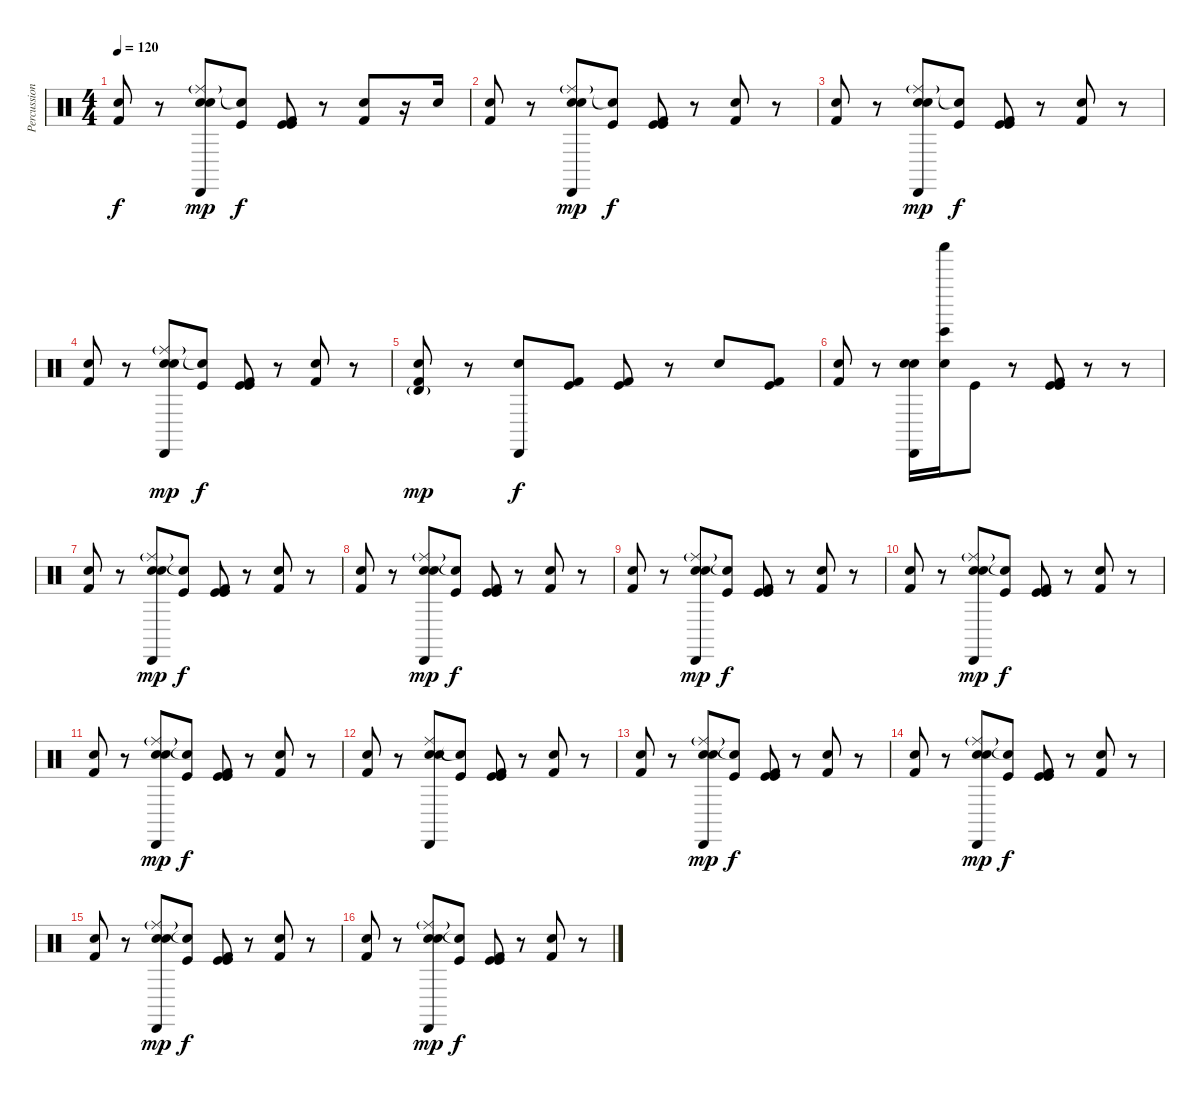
\track ("Percussion" "Percussion") {instrument percussion}
\staff {score}
\articulation defaults
\ts (4 4)
\tempo 120
\clef neutral
\ks c
("Kick (hit) 2" "Snare (hit) 2").8{dy f} r.8 ("Ride (middle)"{g} "Snare (hit) 2" "Cabasa (hit)" "Snare (hit) 2").8{dy mp} ("Snare (hit)"{t} "Kick (hit)").8{dy f} ("Kick (hit)" "Kick (hit)" "Kick (hit) 2").8 r.8 ("Kick (hit) 2" "Snare (hit) 2").8 r.16 "Snare (hit) 2".16 |
("Kick (hit) 2" "Snare (hit) 2").8 r.8 ("Ride (middle)"{g} "Snare (hit) 2" "Cabasa (hit)" "Snare (hit) 2").8{dy mp} ("Snare (hit)"{t} "Kick (hit)").8{dy f} ("Kick (hit)" "Kick (hit)" "Kick (hit) 2").8 r.8 ("Kick (hit) 2" "Snare (hit) 2").8 r.8 |
("Kick (hit) 2" "Snare (hit) 2").8 r.8 ("Ride (middle)"{g} "Snare (hit) 2" "Cabasa (hit)" "Snare (hit) 2").8{dy mp} ("Snare (hit)"{t} "Kick (hit)").8{dy f} ("Kick (hit)" "Kick (hit)" "Kick (hit) 2").8 r.8 ("Kick (hit) 2" "Snare (hit) 2").8 r.8 |
("Kick (hit) 2" "Snare (hit) 2").8 r.8 ("Ride (middle)"{g} "Snare (hit) 2" "Cabasa (hit)" "Snare (hit) 2").8{dy mp} ("Snare (hit)"{t} "Kick (hit)").8{dy f} ("Kick (hit)" "Kick (hit)" "Kick (hit) 2").8 r.8 ("Kick (hit) 2" "Snare (hit) 2").8 r.8 |
("Timbale high (hit)"{g} "Kick (hit) 2" "Snare (hit) 2").8{dy mp} r.8 ("Cabasa (hit)" "Snare (hit) 2").8{dy f} ("Kick (hit)" "Kick (hit) 2").8 ("Kick (hit)" "Kick (hit) 2").8 r.8 "Snare (hit) 2".8 ("Kick (hit) 2" "Kick (hit)").8 |
("Kick (hit) 2" "Snare (hit) 2").8 r.8 ("Snare (hit) 2" "Cabasa (hit)" "Snare (hit) 2").16 ("Bongo High (hit)" "Shaker (hit)" "Snare (hit) 2").16 "Kick (hit)".8 r.8 ("Kick (hit)" "Kick (hit)" "Kick (hit) 2").8 r.8 r.8 |
("Kick (hit) 2" "Snare (hit) 2").8 r.8 ("Ride (middle)"{g} "Snare (hit) 2" "Cabasa (hit)" "Snare (hit) 2").8{dy mp} ("Snare (hit)"{t} "Kick (hit)").8{dy f} ("Kick (hit)" "Kick (hit)" "Kick (hit) 2").8 r.8 ("Kick (hit) 2" "Snare (hit) 2").8 r.8 |
("Kick (hit) 2" "Snare (hit) 2").8 r.8 ("Ride (middle)"{g} "Snare (hit) 2" "Cabasa (hit)" "Snare (hit) 2").8{dy mp} ("Snare (hit)"{t} "Kick (hit)").8{dy f} ("Kick (hit)" "Kick (hit)" "Kick (hit) 2").8 r.8 ("Kick (hit) 2" "Snare (hit) 2").8 r.8 |
("Kick (hit) 2" "Snare (hit) 2").8 r.8 ("Ride (middle)"{g} "Snare (hit) 2" "Cabasa (hit)" "Snare (hit) 2").8{dy mp} ("Snare (hit)"{t} "Kick (hit)").8{dy f} ("Kick (hit)" "Kick (hit)" "Kick (hit) 2").8 r.8 ("Kick (hit) 2" "Snare (hit) 2").8 r.8 |
("Kick (hit) 2" "Snare (hit) 2").8 r.8 ("Ride (middle)"{g} "Snare (hit) 2" "Cabasa (hit)" "Snare (hit) 2").8{dy mp} ("Snare (hit)"{t} "Kick (hit)").8{dy f} ("Kick (hit)" "Kick (hit)" "Kick (hit) 2").8 r.8 ("Kick (hit) 2" "Snare (hit) 2").8 r.8 |
("Kick (hit) 2" "Snare (hit) 2").8 r.8 ("Ride (middle)"{g} "Snare (hit) 2" "Cabasa (hit)" "Snare (hit) 2").8{dy mp} ("Snare (hit)"{t} "Kick (hit)").8{dy f} ("Kick (hit)" "Kick (hit)" "Kick (hit) 2").8 r.8 ("Kick (hit) 2" "Snare (hit) 2").8 r.8 |
("Kick (hit) 2" "Snare (hit) 2").8 r.8 ("Ride (middle)" "Snare (hit) 2" "Cabasa (hit)" "Snare (hit) 2").8 ("Snare (hit)"{t} "Kick (hit)").8 ("Kick (hit)" "Kick (hit)" "Kick (hit) 2").8 r.8 ("Kick (hit) 2" "Snare (hit) 2").8 r.8 |
("Kick (hit) 2" "Snare (hit) 2").8 r.8 ("Ride (middle)"{g} "Snare (hit) 2" "Cabasa (hit)" "Snare (hit) 2").8{dy mp} ("Snare (hit)"{t} "Kick (hit)").8{dy f} ("Kick (hit)" "Kick (hit)" "Kick (hit) 2").8 r.8 ("Kick (hit) 2" "Snare (hit) 2").8 r.8 |
("Kick (hit) 2" "Snare (hit) 2").8 r.8 ("Ride (middle)"{g} "Snare (hit) 2" "Cabasa (hit)" "Snare (hit) 2").8{dy mp} ("Snare (hit)"{t} "Kick (hit)").8{dy f} ("Kick (hit)" "Kick (hit)" "Kick (hit) 2").8 r.8 ("Kick (hit) 2" "Snare (hit) 2").8 r.8 |
("Kick (hit) 2" "Snare (hit) 2").8 r.8 ("Ride (middle)"{g} "Snare (hit) 2" "Cabasa (hit)" "Snare (hit) 2").8{dy mp} ("Snare (hit)"{t} "Kick (hit)").8{dy f} ("Kick (hit)" "Kick (hit)" "Kick (hit) 2").8 r.8 ("Kick (hit) 2" "Snare (hit) 2").8 r.8 |
("Kick (hit) 2" "Snare (hit) 2").8 r.8 ("Ride (middle)"{g} "Snare (hit) 2" "Cabasa (hit)" "Snare (hit) 2").8{dy mp} ("Snare (hit)"{t} "Kick (hit)").8{dy f} ("Kick (hit)" "Kick (hit)" "Kick (hit) 2").8 r.8 ("Kick (hit) 2" "Snare (hit) 2").8 r.8
